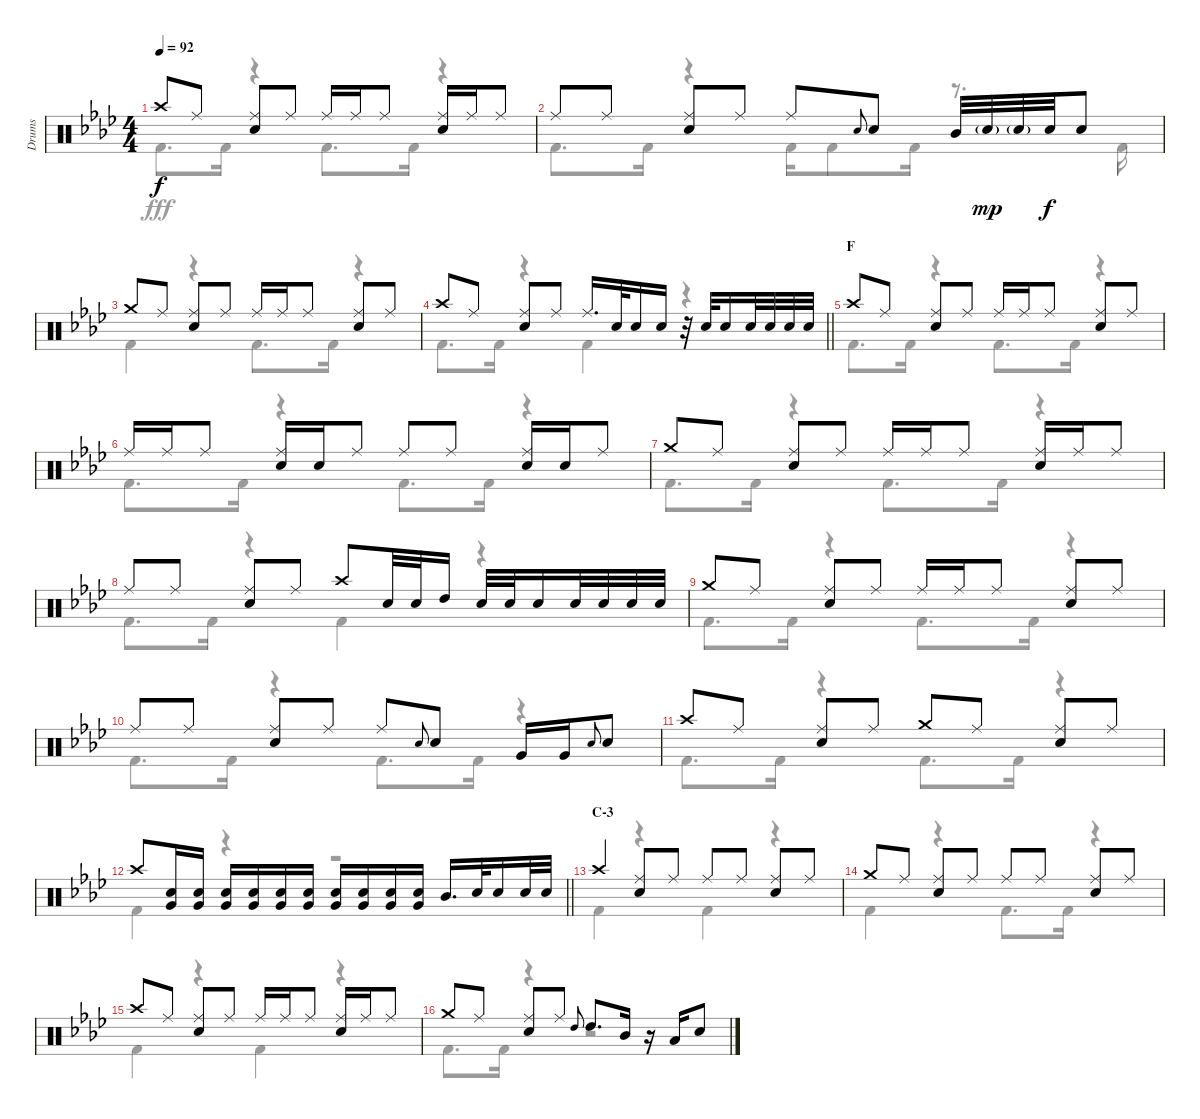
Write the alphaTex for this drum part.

\track ("Drums" "Drums") {instrument percussion}
\staff {score}
\articulation defaults
\voice
\ts (4 4)
\tempo 92
\clef neutral
\ks ab "Crash high (hit)".8{dy f} "Ride (middle)".8
("Ride (middle)" "Snare (hit) 2").8 "Ride (middle)".8 "Ride (middle)".16 "Ride (middle)".16 "Ride (middle)".8 ("Ride (middle)" "Snare (hit) 2").16 "Ride (middle)".16 "Ride (middle)".8 |
"Ride (middle)".8 "Ride (middle)".8 ("Ride (middle)" "Snare (hit) 2").8 "Ride (middle)".8 "Ride (middle)".8 "Snare (hit) 2".8{gr onbeat} "Snare (hit) 2".8 "Mid Tom (hit)".32 "Snare (hit) 2"{g}.32{dy mp} "Snare (hit) 2"{g}.32 "Snare (hit) 2".32{dy f} "Snare (hit) 2".8 |
"Crash medium (hit)".8 "Ride (middle)".8 ("Ride (middle)" "Snare (hit) 2").8 "Ride (middle)".8 "Ride (middle)".16 "Ride (middle)".16 "Ride (middle)".8 ("Ride (middle)" "Snare (hit) 2").8 "Ride (middle)".8 |
\barLineRight lightlight "Crash high (hit)".8 "Ride (middle)".8
("Ride (middle)" "Snare (hit) 2").8 "Ride (middle)".8 "Ride (middle)".16{d} "Snare (hit) 2".32 "Snare (hit) 2".16 "Snare (hit) 2".16 r.32 "Snare (hit) 2".32 "Snare (hit) 2".16 "Snare (hit) 2".32 "Snare (hit) 2".32 "Snare (hit) 2".32 "Snare (hit) 2".32 |
\section ("" "F")
"Crash high (hit)".8 "Ride (middle)".8 ("Ride (middle)" "Snare (hit) 2").8 "Ride (middle)".8 "Ride (middle)".16 "Ride (middle)".16 "Ride (middle)".8 ("Ride (middle)" "Snare (hit) 2").8 "Ride (middle)".8 |
"Ride (middle)".16 "Ride (middle)".16 "Ride (middle)".8 ("Ride (middle)" "Snare (hit) 2").16 "Snare (hit) 2".16 "Ride (middle)".8 "Ride (middle)".8 "Ride (middle)".8 ("Ride (middle)" "Snare (hit) 2").16 "Snare (hit) 2".16 "Ride (middle)".8 |
"Crash medium (hit)".8 "Ride (middle)".8 ("Ride (middle)" "Snare (hit) 2").8 "Ride (middle)".8 "Ride (middle)".16 "Ride (middle)".16 "Ride (middle)".8 ("Ride (middle)" "Snare (hit) 2").16 "Ride (middle)".16 "Ride (middle)".8 |
"Ride (middle)".8 "Ride (middle)".8 ("Ride (middle)" "Snare (hit) 2").8 "Ride (middle)".8 "Crash high (hit)".8 "Snare (hit) 2".32 "Snare (hit) 2".32 "High Tom (hit)".16 "Snare (hit) 2".32 "Snare (hit) 2".32 "Snare (hit) 2".16 "Snare (hit) 2".32 "Snare (hit) 2".32 "Snare (hit) 2".32 "Snare (hit) 2".32 |
"Crash medium (hit)".8 "Ride (middle)".8 ("Ride (middle)" "Snare (hit) 2").8 "Ride (middle)".8 "Ride (middle)".16 "Ride (middle)".16 "Ride (middle)".8 ("Ride (middle)" "Snare (hit) 2").8 "Ride (middle)".8 |
"Ride (middle)".8 "Ride (middle)".8 ("Ride (middle)" "Snare (hit) 2").8 "Ride (middle)".8 "Ride (middle)".8 "Snare (hit) 2".8{gr onbeat} "Snare (hit) 2".8 "Very Low Tom (hit)".16 "Very Low Tom (hit)".16 "Snare (hit) 2".8{gr onbeat} "Snare (hit) 2".8 |
"Crash high (hit)".8 "Ride (middle)".8 ("Ride (middle)" "Snare (hit) 2").8 "Ride (middle)".8 "Crash medium (hit)".8 "Ride (middle)".8 ("Ride (middle)" "Snare (hit) 2").8 "Ride (middle)".8 |
\barLineRight lightlight "Crash high (hit)".8
("Snare (hit) 2" "Very Low Tom (hit)").16 ("Snare (hit) 2" "Very Low Tom (hit)").16 ("Snare (hit) 2" "Very Low Tom (hit)").16 ("Snare (hit) 2" "Very Low Tom (hit)").16 ("Snare (hit) 2" "Very Low Tom (hit)").16 ("Snare (hit) 2" "Very Low Tom (hit)").16 ("Snare (hit) 2" "Very Low Tom (hit)").16 ("Snare (hit) 2" "Very Low Tom (hit)").16 ("Snare (hit) 2" "Very Low Tom (hit)").16 ("Snare (hit) 2" "Very Low Tom (hit)").16 "Mid Tom (hit)".16{d} "Snare (hit) 2".32 "Snare (hit) 2".16 "Snare (hit) 2".32 "Snare (hit) 2".32 |
\section ("" "C-3")
"Crash high (hit)".4 ("Ride (middle)" "Snare (hit) 2").8 "Ride (middle)".8 "Ride (middle)".8 "Ride (middle)".8 ("Ride (middle)" "Snare (hit) 2").8 "Ride (middle)".8 |
"Crash medium (hit)".8 "Ride (middle)".8 ("Ride (middle)" "Snare (hit) 2").8 "Ride (middle)".8 "Ride (middle)".8 "Ride (middle)".8 ("Ride (middle)" "Snare (hit) 2").8 "Ride (middle)".8 |
"Crash high (hit)".8 "Ride (middle)".8 ("Ride (middle)" "Snare (hit) 2").8 "Ride (middle)".8 "Ride (middle)".16 "Ride (middle)".16 "Ride (middle)".8 ("Ride (middle)" "Snare (hit) 2").16 "Ride (middle)".16 "Ride (middle)".8 |
"Crash medium (hit)".8 "Ride (middle)".8 ("Ride (middle)" "Snare (hit) 2").8 "Ride (middle)".8 "High Tom (hit)".8{gr onbeat} "High Tom (hit)".8{d} "Mid Tom (hit)".16 r.16 "Low Tom (hit)".16 "Snare (hit) 2".8
\voice
\clef neutral
\ottava regular
\simile none
\ks ab "Kick (hit) 2".8{d dy fff} "Kick (hit) 2".16
r.4 "Kick (hit) 2".8{d} "Kick (hit) 2".16 r.4 |
"Kick (hit) 2".8{d} "Kick (hit) 2".16 r.4 "Kick (hit) 2".16 "Kick (hit) 2".8 "Kick (hit) 2".16 r.8{d} "Kick (hit) 2".16 |
"Kick (hit) 2".4 r.4 "Kick (hit) 2".8{d} "Kick (hit) 2".16 r.4 |
\barLineRight lightlight "Kick (hit) 2".8{d} "Kick (hit) 2".16
r.4 "Kick (hit) 2".4 r.4 |
"Kick (hit) 2".8{d} "Kick (hit) 2".16 r.4 "Kick (hit) 2".8{d} "Kick (hit) 2".16 r.4 |
"Kick (hit) 2".8{d} "Kick (hit) 2".16 r.4 "Kick (hit) 2".8{d} "Kick (hit) 2".16 r.4 |
"Kick (hit) 2".8{d} "Kick (hit) 2".16 r.4 "Kick (hit) 2".8{d} "Kick (hit) 2".16 r.4 |
"Kick (hit) 2".8{d} "Kick (hit) 2".16 r.4 "Kick (hit) 2".4 r.4 |
"Kick (hit) 2".8{d} "Kick (hit) 2".16 r.4 "Kick (hit) 2".8{d} "Kick (hit) 2".16 r.4 |
"Kick (hit) 2".8{d} "Kick (hit) 2".16 r.4 "Kick (hit) 2".8{d} "Kick (hit) 2".16 r.4 |
"Kick (hit) 2".8{d} "Kick (hit) 2".16 r.4 "Kick (hit) 2".8{d} "Kick (hit) 2".16 r.4 |
\barLineRight lightlight "Kick (hit) 2".4
r.4 r.2 |
"Kick (hit) 2".4 r.4 "Kick (hit) 2".4 r.4 |
"Kick (hit) 2".4 r.4 "Kick (hit) 2".8{d} "Kick (hit) 2".16 r.4 |
"Kick (hit) 2".4 r.4 "Kick (hit) 2".4 r.4 |
"Kick (hit) 2".8{d} "Kick (hit) 2".16 r.4 r.2
